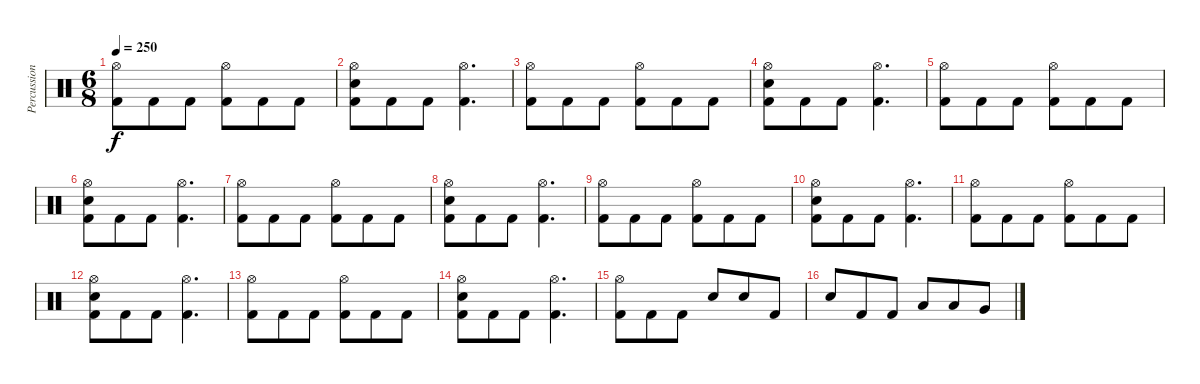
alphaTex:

\track ("Percussion" "Percussion") {instrument percussion}
\staff {score}
\articulation defaults
\ts (6 8)
\tempo 250
\clef neutral
\ks c
("Hi-Hat (open)" "Kick (hit) 2").8{dy f} "Kick (hit) 2".8 "Kick (hit) 2".8 ("Hi-Hat (open)" "Kick (hit) 2").8 "Kick (hit) 2".8 "Kick (hit) 2".8 |
("Hi-Hat (open)" "Electric Snare (hit)" "Kick (hit) 2").8 "Kick (hit) 2".8 "Kick (hit) 2".8 ("Hi-Hat (open)" "Kick (hit) 2").4{d} |
("Hi-Hat (open)" "Kick (hit) 2").8 "Kick (hit) 2".8 "Kick (hit) 2".8 ("Hi-Hat (open)" "Kick (hit) 2").8 "Kick (hit) 2".8 "Kick (hit) 2".8 |
("Hi-Hat (open)" "Electric Snare (hit)" "Kick (hit) 2").8 "Kick (hit) 2".8 "Kick (hit) 2".8 ("Hi-Hat (open)" "Kick (hit) 2").4{d} |
("Hi-Hat (open)" "Kick (hit) 2").8 "Kick (hit) 2".8 "Kick (hit) 2".8 ("Hi-Hat (open)" "Kick (hit) 2").8 "Kick (hit) 2".8 "Kick (hit) 2".8 |
("Hi-Hat (open)" "Electric Snare (hit)" "Kick (hit) 2").8 "Kick (hit) 2".8 "Kick (hit) 2".8 ("Hi-Hat (open)" "Kick (hit) 2").4{d} |
("Hi-Hat (open)" "Kick (hit) 2").8 "Kick (hit) 2".8 "Kick (hit) 2".8 ("Hi-Hat (open)" "Kick (hit) 2").8 "Kick (hit) 2".8 "Kick (hit) 2".8 |
("Hi-Hat (open)" "Electric Snare (hit)" "Kick (hit) 2").8 "Kick (hit) 2".8 "Kick (hit) 2".8 ("Hi-Hat (open)" "Kick (hit) 2").4{d} |
("Hi-Hat (open)" "Kick (hit) 2").8 "Kick (hit) 2".8 "Kick (hit) 2".8 ("Hi-Hat (open)" "Kick (hit) 2").8 "Kick (hit) 2".8 "Kick (hit) 2".8 |
("Hi-Hat (open)" "Electric Snare (hit)" "Kick (hit) 2").8 "Kick (hit) 2".8 "Kick (hit) 2".8 ("Hi-Hat (open)" "Kick (hit) 2").4{d} |
("Hi-Hat (open)" "Kick (hit) 2").8 "Kick (hit) 2".8 "Kick (hit) 2".8 ("Hi-Hat (open)" "Kick (hit) 2").8 "Kick (hit) 2".8 "Kick (hit) 2".8 |
("Hi-Hat (open)" "Electric Snare (hit)" "Kick (hit) 2").8 "Kick (hit) 2".8 "Kick (hit) 2".8 ("Hi-Hat (open)" "Kick (hit) 2").4{d} |
("Hi-Hat (open)" "Kick (hit) 2").8 "Kick (hit) 2".8 "Kick (hit) 2".8 ("Hi-Hat (open)" "Kick (hit) 2").8 "Kick (hit) 2".8 "Kick (hit) 2".8 |
("Hi-Hat (open)" "Electric Snare (hit)" "Kick (hit) 2").8 "Kick (hit) 2".8 "Kick (hit) 2".8 ("Hi-Hat (open)" "Kick (hit) 2").4{d} |
("Hi-Hat (open)" "Kick (hit) 2").8 "Kick (hit) 2".8 "Kick (hit) 2".8 "Electric Snare (hit)".8 "Electric Snare (hit)".8 "Kick (hit) 2".8 |
"Electric Snare (hit)".8 "Kick (hit) 2".8 "Kick (hit) 2".8 "Low Tom (hit)".8 "Low Tom (hit)".8 "Very Low Tom (hit)".8
